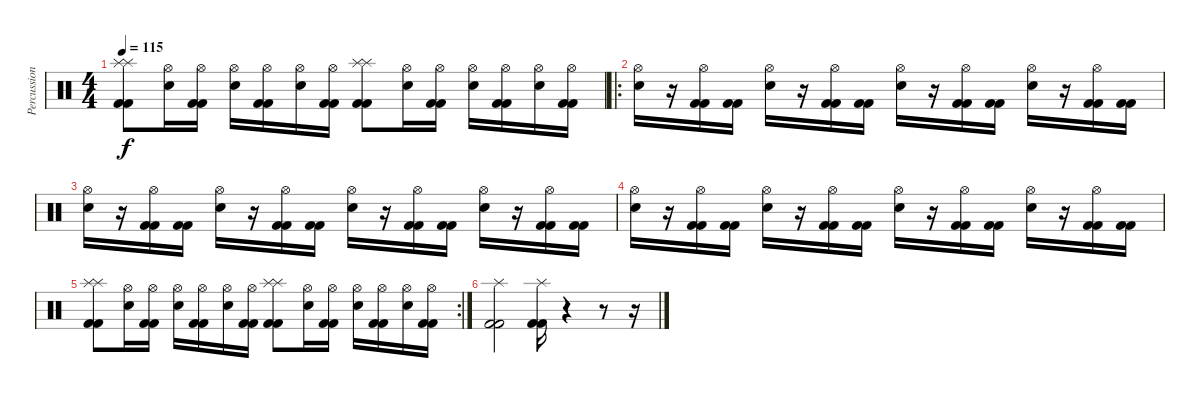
\track ("Percussion" "Percussion") {instrument percussion}
\staff {score}
\articulation defaults
\ts (4 4)
\tempo 115
\clef neutral
\ks c
("Splash (hit)" "Splash (hit)" "Kick (hit) 2" "Kick (hit) 2").8{dy f} ("Hi-Hat (open)" "Electric Snare (hit)").16 ("Hi-Hat (open)" "Kick (hit) 2" "Kick (hit) 2").16 ("Hi-Hat (open)" "Electric Snare (hit)").16 ("Hi-Hat (open)" "Kick (hit) 2" "Kick (hit) 2").16 ("Hi-Hat (open)" "Electric Snare (hit)").16 ("Hi-Hat (open)" "Kick (hit) 2" "Kick (hit) 2").16 ("Splash (hit)" "Splash (hit)" "Kick (hit) 2" "Kick (hit) 2").8 ("Hi-Hat (open)" "Electric Snare (hit)").16 ("Hi-Hat (open)" "Kick (hit) 2" "Kick (hit) 2").16 ("Hi-Hat (open)" "Electric Snare (hit)").16 ("Hi-Hat (open)" "Kick (hit) 2" "Kick (hit) 2").16 ("Hi-Hat (open)" "Electric Snare (hit)").16 ("Hi-Hat (open)" "Kick (hit) 2" "Kick (hit) 2").16 |
\ro
("Hi-Hat (open)" "Electric Snare (hit)").16 r.16 ("Hi-Hat (open)" "Kick (hit) 2" "Kick (hit) 2").16 ("Kick (hit) 2" "Kick (hit) 2").16 ("Hi-Hat (open)" "Electric Snare (hit)").16 r.16 ("Hi-Hat (open)" "Kick (hit) 2" "Kick (hit) 2").16 ("Kick (hit) 2" "Kick (hit) 2").16 ("Hi-Hat (open)" "Electric Snare (hit)").16 r.16 ("Hi-Hat (open)" "Kick (hit) 2" "Kick (hit) 2").16 ("Kick (hit) 2" "Kick (hit) 2").16 ("Hi-Hat (open)" "Electric Snare (hit)").16 r.16 ("Hi-Hat (open)" "Kick (hit) 2" "Kick (hit) 2").16 ("Kick (hit) 2" "Kick (hit) 2").16 |
("Hi-Hat (open)" "Electric Snare (hit)").16 r.16 ("Hi-Hat (open)" "Kick (hit) 2" "Kick (hit) 2").16 ("Kick (hit) 2" "Kick (hit) 2").16 ("Hi-Hat (open)" "Electric Snare (hit)").16 r.16 ("Hi-Hat (open)" "Kick (hit) 2" "Kick (hit) 2").16 ("Kick (hit) 2" "Kick (hit) 2").16 ("Hi-Hat (open)" "Electric Snare (hit)").16 r.16 ("Hi-Hat (open)" "Kick (hit) 2" "Kick (hit) 2").16 ("Kick (hit) 2" "Kick (hit) 2").16 ("Hi-Hat (open)" "Electric Snare (hit)").16 r.16 ("Hi-Hat (open)" "Kick (hit) 2" "Kick (hit) 2").16 ("Kick (hit) 2" "Kick (hit) 2").16 |
("Hi-Hat (open)" "Electric Snare (hit)").16 r.16 ("Hi-Hat (open)" "Kick (hit) 2" "Kick (hit) 2").16 ("Kick (hit) 2" "Kick (hit) 2").16 ("Hi-Hat (open)" "Electric Snare (hit)").16 r.16 ("Hi-Hat (open)" "Kick (hit) 2" "Kick (hit) 2").16 ("Kick (hit) 2" "Kick (hit) 2").16 ("Hi-Hat (open)" "Electric Snare (hit)").16 r.16 ("Hi-Hat (open)" "Kick (hit) 2" "Kick (hit) 2").16 ("Kick (hit) 2" "Kick (hit) 2").16 ("Hi-Hat (open)" "Electric Snare (hit)").16 r.16 ("Hi-Hat (open)" "Kick (hit) 2" "Kick (hit) 2").16 ("Kick (hit) 2" "Kick (hit) 2").16 |
\rc 2
("Splash (hit)" "Splash (hit)" "Kick (hit) 2" "Kick (hit) 2").8 ("Hi-Hat (open)" "Electric Snare (hit)").16 ("Hi-Hat (open)" "Kick (hit) 2" "Kick (hit) 2").16 ("Hi-Hat (open)" "Electric Snare (hit)").16 ("Hi-Hat (open)" "Kick (hit) 2" "Kick (hit) 2").16 ("Hi-Hat (open)" "Electric Snare (hit)").16 ("Hi-Hat (open)" "Kick (hit) 2" "Kick (hit) 2").16 ("Splash (hit)" "Splash (hit)" "Kick (hit) 2" "Kick (hit) 2").8 ("Hi-Hat (open)" "Electric Snare (hit)").16 ("Hi-Hat (open)" "Kick (hit) 2" "Kick (hit) 2").16 ("Hi-Hat (open)" "Electric Snare (hit)").16 ("Hi-Hat (open)" "Kick (hit) 2" "Kick (hit) 2").16 ("Hi-Hat (open)" "Electric Snare (hit)").16 ("Hi-Hat (open)" "Kick (hit) 2" "Kick (hit) 2").16 |
("Splash (hit)" "Kick (hit) 2" "Kick (hit) 2").2 ("Splash (hit)" "Kick (hit) 2" "Kick (hit) 2").16 r.4 r.8 r.16
